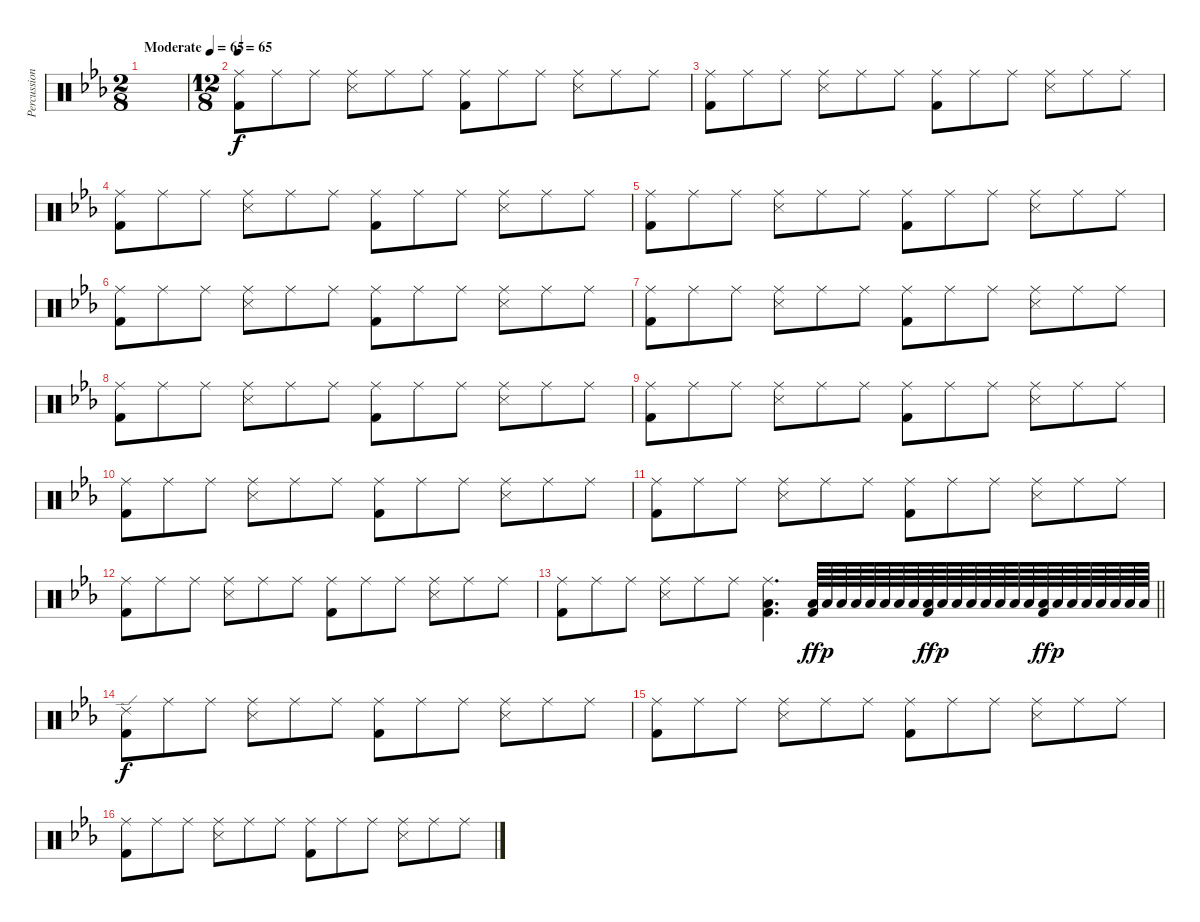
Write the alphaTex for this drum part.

\track ("Percussion" "Percussion") {instrument percussion}
\staff {score}
\articulation defaults
\ts (2 8)
\tempo (65 "Moderate")
\tempo 45
\tempo (65 "Moderate")
\clef neutral
\ks cminor
|
\ts (12 8)
\tempo 65
("Ride (middle)" "Kick (hit) 2").8 "Ride (middle)".8 "Ride (middle)".8 ("Ride (middle)" "Snare (side stick) 3").8 "Ride (middle)".8 "Ride (middle)".8 ("Ride (middle)" "Kick (hit) 2").8 "Ride (middle)".8 "Ride (middle)".8 ("Ride (middle)" "Snare (side stick) 3").8 "Ride (middle)".8 "Ride (middle)".8 |
("Ride (middle)" "Kick (hit) 2").8 "Ride (middle)".8 "Ride (middle)".8 ("Ride (middle)" "Snare (side stick) 3").8 "Ride (middle)".8 "Ride (middle)".8 ("Ride (middle)" "Kick (hit) 2").8 "Ride (middle)".8 "Ride (middle)".8 ("Ride (middle)" "Snare (side stick) 3").8 "Ride (middle)".8 "Ride (middle)".8 |
("Ride (middle)" "Kick (hit) 2").8 "Ride (middle)".8 "Ride (middle)".8 ("Ride (middle)" "Snare (side stick) 3").8 "Ride (middle)".8 "Ride (middle)".8 ("Ride (middle)" "Kick (hit) 2").8 "Ride (middle)".8 "Ride (middle)".8 ("Ride (middle)" "Snare (side stick) 3").8 "Ride (middle)".8 "Ride (middle)".8 |
("Ride (middle)" "Kick (hit) 2").8 "Ride (middle)".8 "Ride (middle)".8 ("Ride (middle)" "Snare (side stick) 3").8 "Ride (middle)".8 "Ride (middle)".8 ("Ride (middle)" "Kick (hit) 2").8 "Ride (middle)".8 "Ride (middle)".8 ("Ride (middle)" "Snare (side stick) 3").8 "Ride (middle)".8 "Ride (middle)".8 |
("Ride (middle)" "Kick (hit) 2").8 "Ride (middle)".8 "Ride (middle)".8 ("Ride (middle)" "Snare (side stick) 3").8 "Ride (middle)".8 "Ride (middle)".8 ("Ride (middle)" "Kick (hit) 2").8 "Ride (middle)".8 "Ride (middle)".8 ("Ride (middle)" "Snare (side stick) 3").8 "Ride (middle)".8 "Ride (middle)".8 |
("Ride (middle)" "Kick (hit) 2").8 "Ride (middle)".8 "Ride (middle)".8 ("Ride (middle)" "Snare (side stick) 3").8 "Ride (middle)".8 "Ride (middle)".8 ("Ride (middle)" "Kick (hit) 2").8 "Ride (middle)".8 "Ride (middle)".8 ("Ride (middle)" "Snare (side stick) 3").8 "Ride (middle)".8 "Ride (middle)".8 |
("Ride (middle)" "Kick (hit) 2").8 "Ride (middle)".8 "Ride (middle)".8 ("Ride (middle)" "Snare (side stick) 3").8 "Ride (middle)".8 "Ride (middle)".8 ("Ride (middle)" "Kick (hit) 2").8 "Ride (middle)".8 "Ride (middle)".8 ("Ride (middle)" "Snare (side stick) 3").8 "Ride (middle)".8 "Ride (middle)".8 |
("Ride (middle)" "Kick (hit) 2").8 "Ride (middle)".8 "Ride (middle)".8 ("Ride (middle)" "Snare (side stick) 3").8 "Ride (middle)".8 "Ride (middle)".8 ("Ride (middle)" "Kick (hit) 2").8 "Ride (middle)".8 "Ride (middle)".8 ("Ride (middle)" "Snare (side stick) 3").8 "Ride (middle)".8 "Ride (middle)".8 |
("Ride (middle)" "Kick (hit) 2").8 "Ride (middle)".8 "Ride (middle)".8 ("Ride (middle)" "Snare (side stick) 3").8 "Ride (middle)".8 "Ride (middle)".8 ("Ride (middle)" "Kick (hit) 2").8 "Ride (middle)".8 "Ride (middle)".8 ("Ride (middle)" "Snare (side stick) 3").8 "Ride (middle)".8 "Ride (middle)".8 |
("Ride (middle)" "Kick (hit) 2").8 "Ride (middle)".8 "Ride (middle)".8 ("Ride (middle)" "Snare (side stick) 3").8 "Ride (middle)".8 "Ride (middle)".8 ("Ride (middle)" "Kick (hit) 2").8 "Ride (middle)".8 "Ride (middle)".8 ("Ride (middle)" "Snare (side stick) 3").8 "Ride (middle)".8 "Ride (middle)".8 |
("Ride (middle)" "Kick (hit) 2").8 "Ride (middle)".8 "Ride (middle)".8 ("Ride (middle)" "Snare (side stick) 3").8 "Ride (middle)".8 "Ride (middle)".8 ("Ride (middle)" "Kick (hit) 2").8 "Ride (middle)".8 "Ride (middle)".8 ("Ride (middle)" "Snare (side stick) 3").8 "Ride (middle)".8 "Ride (middle)".8 |
\barLineRight lightlight
("Ride (middle)" "Kick (hit) 2").8 "Ride (middle)".8 "Ride (middle)".8 ("Ride (middle)" "Snare (side stick) 3").8 "Ride (middle)".8 "Ride (middle)".8 ("Ride (middle)" "Low Floor Tom (hit)" "Kick (hit) 2").4{d} ("Low Floor Tom (hit)" "Kick (hit) 2").64{dy ff} "Low Floor Tom (hit)".64{dy p} "Low Floor Tom (hit)".64 "Low Floor Tom (hit)".64 "Low Floor Tom (hit)".64 "Low Floor Tom (hit)".64 "Low Floor Tom (hit)".64 "Low Floor Tom (hit)".64 ("Low Floor Tom (hit)" "Kick (hit) 2").64{dy ff} "Low Floor Tom (hit)".64{dy p} "Low Floor Tom (hit)".64 "Low Floor Tom (hit)".64 "Low Floor Tom (hit)".64 "Low Floor Tom (hit)".64 "Low Floor Tom (hit)".64 "Low Floor Tom (hit)".64 ("Low Floor Tom (hit)" "Kick (hit) 2").64{dy ff} "Low Floor Tom (hit)".64{dy p} "Low Floor Tom (hit)".64 "Low Floor Tom (hit)".64 "Low Floor Tom (hit)".64 "Low Floor Tom (hit)".64 "Low Floor Tom (hit)".64 "Low Floor Tom (hit)".64 |
("Ride (edge) 2" "Kick (hit) 2").8{dy f} "Ride (middle)".8 "Ride (middle)".8 ("Ride (middle)" "Snare (side stick) 3").8 "Ride (middle)".8 "Ride (middle)".8 ("Ride (middle)" "Kick (hit) 2").8 "Ride (middle)".8 "Ride (middle)".8 ("Ride (middle)" "Snare (side stick) 3").8 "Ride (middle)".8 "Ride (middle)".8 |
("Ride (middle)" "Kick (hit) 2").8 "Ride (middle)".8 "Ride (middle)".8 ("Ride (middle)" "Snare (side stick) 3").8 "Ride (middle)".8 "Ride (middle)".8 ("Ride (middle)" "Kick (hit) 2").8 "Ride (middle)".8 "Ride (middle)".8 ("Ride (middle)" "Snare (side stick) 3").8 "Ride (middle)".8 "Ride (middle)".8 |
("Ride (middle)" "Kick (hit) 2").8 "Ride (middle)".8 "Ride (middle)".8 ("Ride (middle)" "Snare (side stick) 3").8 "Ride (middle)".8 "Ride (middle)".8 ("Ride (middle)" "Kick (hit) 2").8 "Ride (middle)".8 "Ride (middle)".8 ("Ride (middle)" "Snare (side stick) 3").8 "Ride (middle)".8 "Ride (middle)".8
